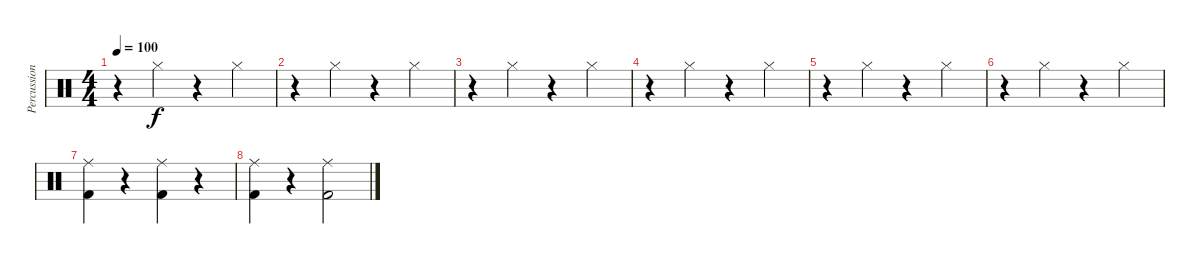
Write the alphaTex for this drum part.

\track ("Percussion" "Percussion") {instrument percussion}
\staff {score}
\articulation defaults
\ts (4 4)
\tempo 100
\clef neutral
\ks c
r.4{dy f} "Hi-Hat (closed)".4 r.4 "Hi-Hat (closed)".4 |
r.4 "Hi-Hat (closed)".4 r.4 "Hi-Hat (closed)".4 |
r.4 "Hi-Hat (closed)".4 r.4 "Hi-Hat (closed)".4 |
r.4 "Hi-Hat (closed)".4 r.4 "Hi-Hat (closed)".4 |
r.4 "Hi-Hat (closed)".4 r.4 "Hi-Hat (closed)".4 |
r.4 "Hi-Hat (closed)".4 r.4 "Hi-Hat (closed)".4 |
("Ride (middle)" "Kick (hit) 2").4 r.4 ("Ride (middle)" "Kick (hit) 2").4 r.4 |
("Ride (middle)" "Kick (hit) 2").4 r.4 ("Ride (middle)" "Kick (hit) 2").2
